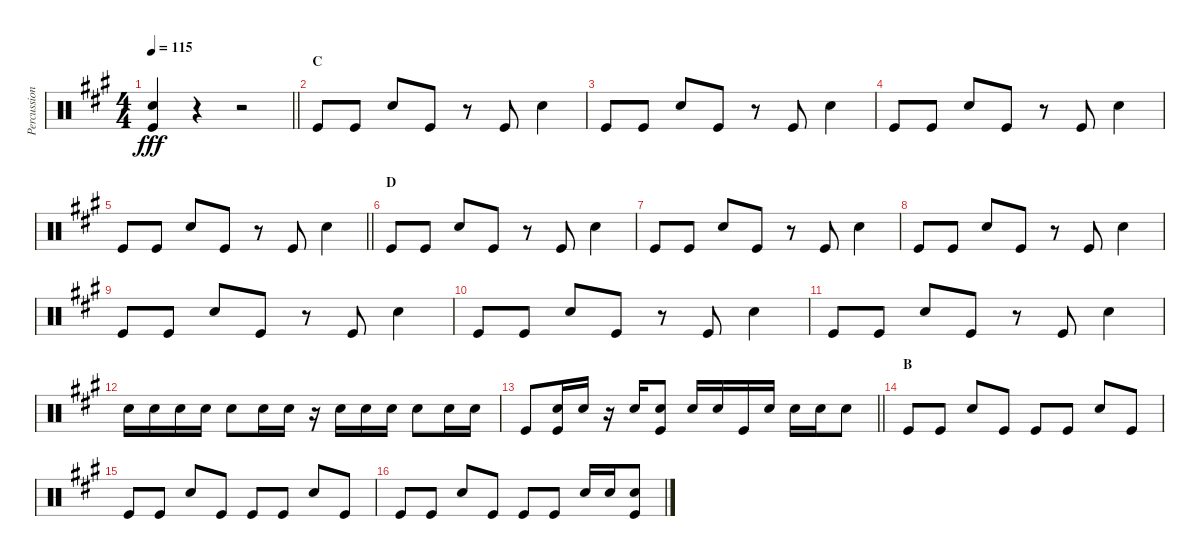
\track ("Percussioni" "Percussion") {instrument percussion}
\staff {score}
\articulation defaults
\ts (4 4)
\tempo 115
\clef neutral
\barLineRight lightlight
\ks a
("Snare (hit) 2" "Kick (hit)").4{dy fff} r.4 r.2 |
\section ("" "C")
"Kick (hit)".8 "Kick (hit)".8 "Snare (hit) 2".8 "Kick (hit)".8 r.8 "Kick (hit)".8 "Snare (hit) 2".4 |
"Kick (hit)".8 "Kick (hit)".8 "Snare (hit) 2".8 "Kick (hit)".8 r.8 "Kick (hit)".8 "Snare (hit) 2".4 |
"Kick (hit)".8 "Kick (hit)".8 "Snare (hit) 2".8 "Kick (hit)".8 r.8 "Kick (hit)".8 "Snare (hit) 2".4 |
\barLineRight lightlight "Kick (hit)".8 "Kick (hit)".8 "Snare (hit) 2".8 "Kick (hit)".8
r.8 "Kick (hit)".8 "Snare (hit) 2".4 |
\section ("" "D")
"Kick (hit)".8 "Kick (hit)".8 "Snare (hit) 2".8 "Kick (hit)".8 r.8 "Kick (hit)".8 "Snare (hit) 2".4 |
"Kick (hit)".8 "Kick (hit)".8 "Snare (hit) 2".8 "Kick (hit)".8 r.8 "Kick (hit)".8 "Snare (hit) 2".4 |
"Kick (hit)".8 "Kick (hit)".8 "Snare (hit) 2".8 "Kick (hit)".8 r.8 "Kick (hit)".8 "Snare (hit) 2".4 |
"Kick (hit)".8 "Kick (hit)".8 "Snare (hit) 2".8 "Kick (hit)".8 r.8 "Kick (hit)".8 "Snare (hit) 2".4 |
"Kick (hit)".8 "Kick (hit)".8 "Snare (hit) 2".8 "Kick (hit)".8 r.8 "Kick (hit)".8 "Snare (hit) 2".4 |
"Kick (hit)".8 "Kick (hit)".8 "Snare (hit) 2".8 "Kick (hit)".8 r.8 "Kick (hit)".8 "Snare (hit) 2".4 |
"Snare (hit) 2".16 "Snare (hit) 2".16 "Snare (hit) 2".16 "Snare (hit) 2".16 "Snare (hit) 2".8 "Snare (hit) 2".16 "Snare (hit) 2".16 r.16 "Snare (hit) 2".16 "Snare (hit) 2".16 "Snare (hit) 2".16 "Snare (hit) 2".8 "Snare (hit) 2".16 "Snare (hit) 2".16 |
\barLineRight lightlight "Kick (hit)".8
("Snare (hit) 2" "Kick (hit)").16 "Snare (hit) 2".16 r.16 "Snare (hit) 2".16 ("Snare (hit) 2" "Kick (hit)").8 "Snare (hit) 2".16 "Snare (hit) 2".16 "Kick (hit)".16 "Snare (hit) 2".16 "Snare (hit) 2".16 "Snare (hit) 2".16 "Snare (hit) 2".8 |
\section ("" "B")
"Kick (hit)".8 "Kick (hit)".8 "Snare (hit) 2".8 "Kick (hit)".8 "Kick (hit)".8 "Kick (hit)".8 "Snare (hit) 2".8 "Kick (hit)".8 |
"Kick (hit)".8 "Kick (hit)".8 "Snare (hit) 2".8 "Kick (hit)".8 "Kick (hit)".8 "Kick (hit)".8 "Snare (hit) 2".8 "Kick (hit)".8 |
"Kick (hit)".8 "Kick (hit)".8 "Snare (hit) 2".8 "Kick (hit)".8 "Kick (hit)".8 "Kick (hit)".8 "Snare (hit) 2".16 "Snare (hit) 2".16 ("Snare (hit) 2" "Kick (hit)").8
